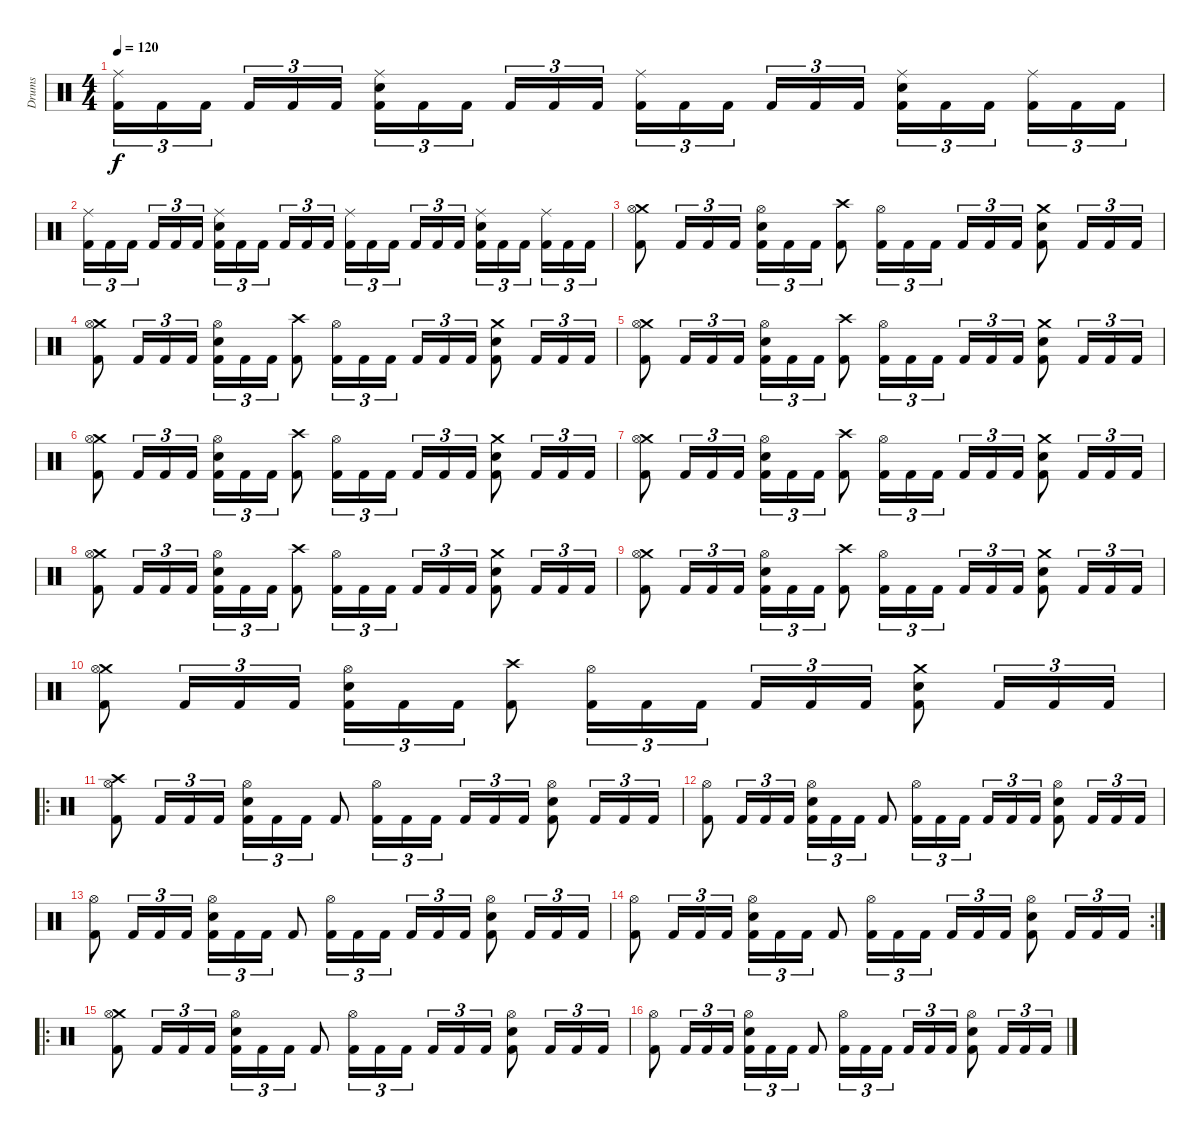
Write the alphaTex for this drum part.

\track ("Drums" "Drums") {instrument percussion}
\staff {score}
\articulation defaults
\ts (4 4)
\tempo 120
\clef neutral
\ks c
("Ride (middle)" "Kick (hit) 2").16{tu (3 2) dy f} "Kick (hit) 2".16{tu (3 2)} "Kick (hit) 2".16{tu (3 2)} "Kick (hit) 2".16{tu (3 2)} "Kick (hit) 2".16{tu (3 2)} "Kick (hit) 2".16{tu (3 2)} ("Ride (middle)" "Electric Snare (hit)" "Kick (hit) 2").16{tu (3 2)} "Kick (hit) 2".16{tu (3 2)} "Kick (hit) 2".16{tu (3 2)} "Kick (hit) 2".16{tu (3 2)} "Kick (hit) 2".16{tu (3 2)} "Kick (hit) 2".16{tu (3 2)} ("Ride (middle)" "Kick (hit) 2").16{tu (3 2)} "Kick (hit) 2".16{tu (3 2)} "Kick (hit) 2".16{tu (3 2)} "Kick (hit) 2".16{tu (3 2)} "Kick (hit) 2".16{tu (3 2)} "Kick (hit) 2".16{tu (3 2)} ("Ride (middle)" "Electric Snare (hit)" "Kick (hit) 2").16{tu (3 2)} "Kick (hit) 2".16{tu (3 2)} "Kick (hit) 2".16{tu (3 2)} ("Ride (middle)" "Kick (hit) 2").16{tu (3 2)} "Kick (hit) 2".16{tu (3 2)} "Kick (hit) 2".16{tu (3 2)} |
("Ride (middle)" "Kick (hit) 2").16{tu (3 2)} "Kick (hit) 2".16{tu (3 2)} "Kick (hit) 2".16{tu (3 2)} "Kick (hit) 2".16{tu (3 2)} "Kick (hit) 2".16{tu (3 2)} "Kick (hit) 2".16{tu (3 2)} ("Ride (middle)" "Electric Snare (hit)" "Kick (hit) 2").16{tu (3 2)} "Kick (hit) 2".16{tu (3 2)} "Kick (hit) 2".16{tu (3 2)} "Kick (hit) 2".16{tu (3 2)} "Kick (hit) 2".16{tu (3 2)} "Kick (hit) 2".16{tu (3 2)} ("Ride (middle)" "Kick (hit) 2").16{tu (3 2)} "Kick (hit) 2".16{tu (3 2)} "Kick (hit) 2".16{tu (3 2)} "Kick (hit) 2".16{tu (3 2)} "Kick (hit) 2".16{tu (3 2)} "Kick (hit) 2".16{tu (3 2)} ("Ride (middle)" "Electric Snare (hit)" "Kick (hit) 2").16{tu (3 2)} "Kick (hit) 2".16{tu (3 2)} "Kick (hit) 2".16{tu (3 2)} ("Ride (middle)" "Kick (hit) 2").16{tu (3 2)} "Kick (hit) 2".16{tu (3 2)} "Kick (hit) 2".16{tu (3 2)} |
("Crash medium (hit)" "Hi-Hat (open)" "Kick (hit) 2").8 "Kick (hit) 2".16{tu (3 2)} "Kick (hit) 2".16{tu (3 2)} "Kick (hit) 2".16{tu (3 2)} ("Hi-Hat (open)" "Electric Snare (hit)" "Kick (hit) 2").16{tu (3 2)} "Kick (hit) 2".16{tu (3 2)} "Kick (hit) 2".16{tu (3 2)} ("Crash high (hit)" "Kick (hit) 2").8 ("Hi-Hat (open)" "Kick (hit) 2").16{tu (3 2)} "Kick (hit) 2".16{tu (3 2)} "Kick (hit) 2".16{tu (3 2)} "Kick (hit) 2".16{tu (3 2)} "Kick (hit) 2".16{tu (3 2)} "Kick (hit) 2".16{tu (3 2)} ("Crash medium (hit)" "Electric Snare (hit)" "Kick (hit) 2").8 "Kick (hit) 2".16{tu (3 2)} "Kick (hit) 2".16{tu (3 2)} "Kick (hit) 2".16{tu (3 2)} |
("Crash medium (hit)" "Hi-Hat (open)" "Kick (hit) 2").8 "Kick (hit) 2".16{tu (3 2)} "Kick (hit) 2".16{tu (3 2)} "Kick (hit) 2".16{tu (3 2)} ("Hi-Hat (open)" "Electric Snare (hit)" "Kick (hit) 2").16{tu (3 2)} "Kick (hit) 2".16{tu (3 2)} "Kick (hit) 2".16{tu (3 2)} ("Crash high (hit)" "Kick (hit) 2").8 ("Hi-Hat (open)" "Kick (hit) 2").16{tu (3 2)} "Kick (hit) 2".16{tu (3 2)} "Kick (hit) 2".16{tu (3 2)} "Kick (hit) 2".16{tu (3 2)} "Kick (hit) 2".16{tu (3 2)} "Kick (hit) 2".16{tu (3 2)} ("Crash medium (hit)" "Electric Snare (hit)" "Kick (hit) 2").8 "Kick (hit) 2".16{tu (3 2)} "Kick (hit) 2".16{tu (3 2)} "Kick (hit) 2".16{tu (3 2)} |
("Crash medium (hit)" "Hi-Hat (open)" "Kick (hit) 2").8 "Kick (hit) 2".16{tu (3 2)} "Kick (hit) 2".16{tu (3 2)} "Kick (hit) 2".16{tu (3 2)} ("Hi-Hat (open)" "Electric Snare (hit)" "Kick (hit) 2").16{tu (3 2)} "Kick (hit) 2".16{tu (3 2)} "Kick (hit) 2".16{tu (3 2)} ("Crash high (hit)" "Kick (hit) 2").8 ("Hi-Hat (open)" "Kick (hit) 2").16{tu (3 2)} "Kick (hit) 2".16{tu (3 2)} "Kick (hit) 2".16{tu (3 2)} "Kick (hit) 2".16{tu (3 2)} "Kick (hit) 2".16{tu (3 2)} "Kick (hit) 2".16{tu (3 2)} ("Crash medium (hit)" "Electric Snare (hit)" "Kick (hit) 2").8 "Kick (hit) 2".16{tu (3 2)} "Kick (hit) 2".16{tu (3 2)} "Kick (hit) 2".16{tu (3 2)} |
("Crash medium (hit)" "Hi-Hat (open)" "Kick (hit) 2").8 "Kick (hit) 2".16{tu (3 2)} "Kick (hit) 2".16{tu (3 2)} "Kick (hit) 2".16{tu (3 2)} ("Hi-Hat (open)" "Electric Snare (hit)" "Kick (hit) 2").16{tu (3 2)} "Kick (hit) 2".16{tu (3 2)} "Kick (hit) 2".16{tu (3 2)} ("Crash high (hit)" "Kick (hit) 2").8 ("Hi-Hat (open)" "Kick (hit) 2").16{tu (3 2)} "Kick (hit) 2".16{tu (3 2)} "Kick (hit) 2".16{tu (3 2)} "Kick (hit) 2".16{tu (3 2)} "Kick (hit) 2".16{tu (3 2)} "Kick (hit) 2".16{tu (3 2)} ("Crash medium (hit)" "Electric Snare (hit)" "Kick (hit) 2").8 "Kick (hit) 2".16{tu (3 2)} "Kick (hit) 2".16{tu (3 2)} "Kick (hit) 2".16{tu (3 2)} |
("Crash medium (hit)" "Hi-Hat (open)" "Kick (hit) 2").8 "Kick (hit) 2".16{tu (3 2)} "Kick (hit) 2".16{tu (3 2)} "Kick (hit) 2".16{tu (3 2)} ("Hi-Hat (open)" "Electric Snare (hit)" "Kick (hit) 2").16{tu (3 2)} "Kick (hit) 2".16{tu (3 2)} "Kick (hit) 2".16{tu (3 2)} ("Crash high (hit)" "Kick (hit) 2").8 ("Hi-Hat (open)" "Kick (hit) 2").16{tu (3 2)} "Kick (hit) 2".16{tu (3 2)} "Kick (hit) 2".16{tu (3 2)} "Kick (hit) 2".16{tu (3 2)} "Kick (hit) 2".16{tu (3 2)} "Kick (hit) 2".16{tu (3 2)} ("Crash medium (hit)" "Electric Snare (hit)" "Kick (hit) 2").8 "Kick (hit) 2".16{tu (3 2)} "Kick (hit) 2".16{tu (3 2)} "Kick (hit) 2".16{tu (3 2)} |
("Crash medium (hit)" "Hi-Hat (open)" "Kick (hit) 2").8 "Kick (hit) 2".16{tu (3 2)} "Kick (hit) 2".16{tu (3 2)} "Kick (hit) 2".16{tu (3 2)} ("Hi-Hat (open)" "Electric Snare (hit)" "Kick (hit) 2").16{tu (3 2)} "Kick (hit) 2".16{tu (3 2)} "Kick (hit) 2".16{tu (3 2)} ("Crash high (hit)" "Kick (hit) 2").8 ("Hi-Hat (open)" "Kick (hit) 2").16{tu (3 2)} "Kick (hit) 2".16{tu (3 2)} "Kick (hit) 2".16{tu (3 2)} "Kick (hit) 2".16{tu (3 2)} "Kick (hit) 2".16{tu (3 2)} "Kick (hit) 2".16{tu (3 2)} ("Crash medium (hit)" "Electric Snare (hit)" "Kick (hit) 2").8 "Kick (hit) 2".16{tu (3 2)} "Kick (hit) 2".16{tu (3 2)} "Kick (hit) 2".16{tu (3 2)} |
("Crash medium (hit)" "Hi-Hat (open)" "Kick (hit) 2").8 "Kick (hit) 2".16{tu (3 2)} "Kick (hit) 2".16{tu (3 2)} "Kick (hit) 2".16{tu (3 2)} ("Hi-Hat (open)" "Electric Snare (hit)" "Kick (hit) 2").16{tu (3 2)} "Kick (hit) 2".16{tu (3 2)} "Kick (hit) 2".16{tu (3 2)} ("Crash high (hit)" "Kick (hit) 2").8 ("Hi-Hat (open)" "Kick (hit) 2").16{tu (3 2)} "Kick (hit) 2".16{tu (3 2)} "Kick (hit) 2".16{tu (3 2)} "Kick (hit) 2".16{tu (3 2)} "Kick (hit) 2".16{tu (3 2)} "Kick (hit) 2".16{tu (3 2)} ("Crash medium (hit)" "Electric Snare (hit)" "Kick (hit) 2").8 "Kick (hit) 2".16{tu (3 2)} "Kick (hit) 2".16{tu (3 2)} "Kick (hit) 2".16{tu (3 2)} |
("Crash medium (hit)" "Hi-Hat (open)" "Kick (hit) 2").8 "Kick (hit) 2".16{tu (3 2)} "Kick (hit) 2".16{tu (3 2)} "Kick (hit) 2".16{tu (3 2)} ("Hi-Hat (open)" "Electric Snare (hit)" "Kick (hit) 2").16{tu (3 2)} "Kick (hit) 2".16{tu (3 2)} "Kick (hit) 2".16{tu (3 2)} ("Crash high (hit)" "Kick (hit) 2").8 ("Hi-Hat (open)" "Kick (hit) 2").16{tu (3 2)} "Kick (hit) 2".16{tu (3 2)} "Kick (hit) 2".16{tu (3 2)} "Kick (hit) 2".16{tu (3 2)} "Kick (hit) 2".16{tu (3 2)} "Kick (hit) 2".16{tu (3 2)} ("Crash medium (hit)" "Electric Snare (hit)" "Kick (hit) 2").8 "Kick (hit) 2".16{tu (3 2)} "Kick (hit) 2".16{tu (3 2)} "Kick (hit) 2".16{tu (3 2)} |
\ro
("Crash high (hit)" "Hi-Hat (open)" "Kick (hit) 2").8 "Kick (hit) 2".16{tu (3 2)} "Kick (hit) 2".16{tu (3 2)} "Kick (hit) 2".16{tu (3 2)} ("Hi-Hat (open)" "Electric Snare (hit)" "Kick (hit) 2").16{tu (3 2)} "Kick (hit) 2".16{tu (3 2)} "Kick (hit) 2".16{tu (3 2)} "Kick (hit) 2".8 ("Hi-Hat (open)" "Kick (hit) 2").16{tu (3 2)} "Kick (hit) 2".16{tu (3 2)} "Kick (hit) 2".16{tu (3 2)} "Kick (hit) 2".16{tu (3 2)} "Kick (hit) 2".16{tu (3 2)} "Kick (hit) 2".16{tu (3 2)} ("Hi-Hat (open)" "Electric Snare (hit)" "Kick (hit) 2").8 "Kick (hit) 2".16{tu (3 2)} "Kick (hit) 2".16{tu (3 2)} "Kick (hit) 2".16{tu (3 2)} |
("Hi-Hat (open)" "Kick (hit) 2").8 "Kick (hit) 2".16{tu (3 2)} "Kick (hit) 2".16{tu (3 2)} "Kick (hit) 2".16{tu (3 2)} ("Hi-Hat (open)" "Electric Snare (hit)" "Kick (hit) 2").16{tu (3 2)} "Kick (hit) 2".16{tu (3 2)} "Kick (hit) 2".16{tu (3 2)} "Kick (hit) 2".8 ("Hi-Hat (open)" "Kick (hit) 2").16{tu (3 2)} "Kick (hit) 2".16{tu (3 2)} "Kick (hit) 2".16{tu (3 2)} "Kick (hit) 2".16{tu (3 2)} "Kick (hit) 2".16{tu (3 2)} "Kick (hit) 2".16{tu (3 2)} ("Hi-Hat (open)" "Electric Snare (hit)" "Kick (hit) 2").8 "Kick (hit) 2".16{tu (3 2)} "Kick (hit) 2".16{tu (3 2)} "Kick (hit) 2".16{tu (3 2)} |
("Hi-Hat (open)" "Kick (hit) 2").8 "Kick (hit) 2".16{tu (3 2)} "Kick (hit) 2".16{tu (3 2)} "Kick (hit) 2".16{tu (3 2)} ("Hi-Hat (open)" "Electric Snare (hit)" "Kick (hit) 2").16{tu (3 2)} "Kick (hit) 2".16{tu (3 2)} "Kick (hit) 2".16{tu (3 2)} "Kick (hit) 2".8 ("Hi-Hat (open)" "Kick (hit) 2").16{tu (3 2)} "Kick (hit) 2".16{tu (3 2)} "Kick (hit) 2".16{tu (3 2)} "Kick (hit) 2".16{tu (3 2)} "Kick (hit) 2".16{tu (3 2)} "Kick (hit) 2".16{tu (3 2)} ("Hi-Hat (open)" "Electric Snare (hit)" "Kick (hit) 2").8 "Kick (hit) 2".16{tu (3 2)} "Kick (hit) 2".16{tu (3 2)} "Kick (hit) 2".16{tu (3 2)} |
\rc 2
("Hi-Hat (open)" "Kick (hit) 2").8 "Kick (hit) 2".16{tu (3 2)} "Kick (hit) 2".16{tu (3 2)} "Kick (hit) 2".16{tu (3 2)} ("Hi-Hat (open)" "Electric Snare (hit)" "Kick (hit) 2").16{tu (3 2)} "Kick (hit) 2".16{tu (3 2)} "Kick (hit) 2".16{tu (3 2)} "Kick (hit) 2".8 ("Hi-Hat (open)" "Kick (hit) 2").16{tu (3 2)} "Kick (hit) 2".16{tu (3 2)} "Kick (hit) 2".16{tu (3 2)} "Kick (hit) 2".16{tu (3 2)} "Kick (hit) 2".16{tu (3 2)} "Kick (hit) 2".16{tu (3 2)} ("Hi-Hat (open)" "Electric Snare (hit)" "Kick (hit) 2").8 "Kick (hit) 2".16{tu (3 2)} "Kick (hit) 2".16{tu (3 2)} "Kick (hit) 2".16{tu (3 2)} |
\ro
("Crash medium (hit)" "Hi-Hat (open)" "Kick (hit) 2").8 "Kick (hit) 2".16{tu (3 2)} "Kick (hit) 2".16{tu (3 2)} "Kick (hit) 2".16{tu (3 2)} ("Hi-Hat (open)" "Electric Snare (hit)" "Kick (hit) 2").16{tu (3 2)} "Kick (hit) 2".16{tu (3 2)} "Kick (hit) 2".16{tu (3 2)} "Kick (hit) 2".8 ("Hi-Hat (open)" "Kick (hit) 2").16{tu (3 2)} "Kick (hit) 2".16{tu (3 2)} "Kick (hit) 2".16{tu (3 2)} "Kick (hit) 2".16{tu (3 2)} "Kick (hit) 2".16{tu (3 2)} "Kick (hit) 2".16{tu (3 2)} ("Hi-Hat (open)" "Electric Snare (hit)" "Kick (hit) 2").8 "Kick (hit) 2".16{tu (3 2)} "Kick (hit) 2".16{tu (3 2)} "Kick (hit) 2".16{tu (3 2)} |
("Hi-Hat (open)" "Kick (hit) 2").8 "Kick (hit) 2".16{tu (3 2)} "Kick (hit) 2".16{tu (3 2)} "Kick (hit) 2".16{tu (3 2)} ("Hi-Hat (open)" "Electric Snare (hit)" "Kick (hit) 2").16{tu (3 2)} "Kick (hit) 2".16{tu (3 2)} "Kick (hit) 2".16{tu (3 2)} "Kick (hit) 2".8 ("Hi-Hat (open)" "Kick (hit) 2").16{tu (3 2)} "Kick (hit) 2".16{tu (3 2)} "Kick (hit) 2".16{tu (3 2)} "Kick (hit) 2".16{tu (3 2)} "Kick (hit) 2".16{tu (3 2)} "Kick (hit) 2".16{tu (3 2)} ("Hi-Hat (open)" "Electric Snare (hit)" "Kick (hit) 2").8 "Kick (hit) 2".16{tu (3 2)} "Kick (hit) 2".16{tu (3 2)} "Kick (hit) 2".16{tu (3 2)}
